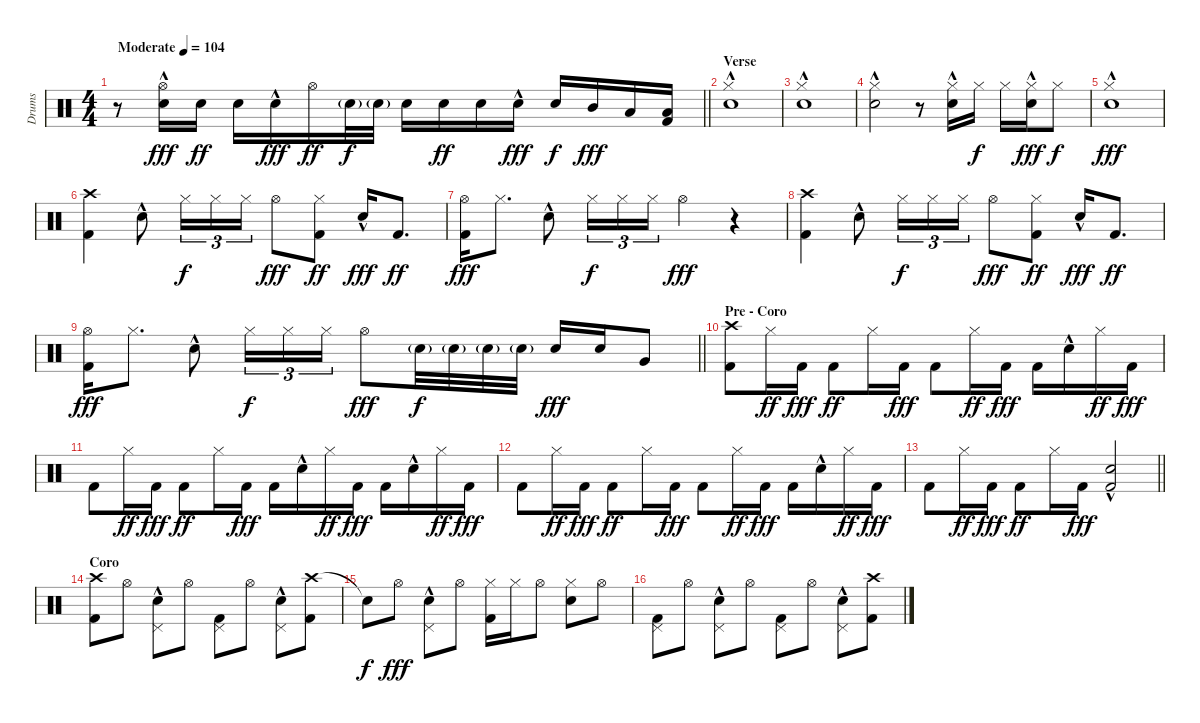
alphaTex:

\track ("Drums" "Drums") {instrument percussion}
\staff {score}
\articulation defaults
\ts (4 4)
\tempo (104 "Moderate")
\clef neutral
\barLineRight lightlight
\ks c
r.8{dy fff} ("Hi-Hat (open)" "Electric Snare (hit)"{hac}).16 "Electric Snare (hit)".16{dy ff} "Electric Snare (hit)".16 "Electric Snare (hit)"{hac}.16{dy fff} "Hi-Hat (open)".16{dy ff} "Electric Snare (hit)"{g}.32{dy f} "Electric Snare (hit)"{g}.32 "Electric Snare (hit)".16 "Electric Snare (hit)".16{dy ff} "Electric Snare (hit)".16 "Electric Snare (hit)"{hac}.16{dy fff} "Electric Snare (hit)".16{dy f} "Mid Tom (hit)".16{dy fff} "Low Tom (hit)".16 ("Low Tom (hit)" "Kick (hit) 2").16 |
\section ("" "Verse")
("Hi-Hat (closed)" "Electric Snare (hit)"{hac}).1 |
("Hi-Hat (closed)" "Electric Snare (hit)"{hac}).1 |
("Hi-Hat (closed)" "Electric Snare (hit)"{hac}).2 r.8 ("Hi-Hat (closed)" "Electric Snare (hit)"{hac}).16 "Hi-Hat (closed)".16{dy f} "Hi-Hat (closed)".16 ("Hi-Hat (closed)" "Electric Snare (hit)"{hac}).16{dy fff} "Hi-Hat (closed)".8{dy f} |
("Hi-Hat (closed)" "Electric Snare (hit)"{hac}).1{dy fff} |
("Crash high (hit)" "Kick (hit) 2").4 "Electric Snare (hit)"{hac}.8 "Hi-Hat (closed)".16{tu (3 2) dy f} "Hi-Hat (closed)".16{tu (3 2)} "Hi-Hat (closed)".16{tu (3 2)} "Hi-Hat (open)".8{dy fff} ("Hi-Hat (closed)" "Kick (hit) 2").8{dy ff} "Electric Snare (hit)"{hac}.16{dy fff} "Kick (hit) 2".8{d dy ff} |
("Hi-Hat (open)" "Kick (hit) 2").16{dy fff} "Hi-Hat (closed)".8{d} "Electric Snare (hit)"{hac}.8 "Hi-Hat (closed)".16{tu (3 2) dy f} "Hi-Hat (closed)".16{tu (3 2)} "Hi-Hat (closed)".16{tu (3 2)} "Hi-Hat (open)".4{dy fff} r.4 |
("Crash high (hit)" "Kick (hit) 2").4 "Electric Snare (hit)"{hac}.8 "Hi-Hat (closed)".16{tu (3 2) dy f} "Hi-Hat (closed)".16{tu (3 2)} "Hi-Hat (closed)".16{tu (3 2)} "Hi-Hat (open)".8{dy fff} ("Hi-Hat (closed)" "Kick (hit) 2").8{dy ff} "Electric Snare (hit)"{hac}.16{dy fff} "Kick (hit) 2".8{d dy ff} |
\barLineRight lightlight
("Hi-Hat (open)" "Kick (hit) 2").16{dy fff} "Hi-Hat (closed)".8{d} "Electric Snare (hit)"{hac}.8 "Hi-Hat (closed)".16{tu (3 2) dy f} "Hi-Hat (closed)".16{tu (3 2)} "Hi-Hat (closed)".16{tu (3 2)} "Hi-Hat (open)".8{dy fff} "Electric Snare (hit)"{g}.32{dy f} "Electric Snare (hit)"{g}.32 "Electric Snare (hit)"{g}.32 "Electric Snare (hit)"{g}.32 "Electric Snare (hit)".16{dy fff} "Electric Snare (hit)".16 "Very Low Tom (hit)".8 |
\section ("" "Pre - Coro")
("Crash high (hit)" "Kick (hit) 2").8 "Hi-Hat (closed)".16{dy ff} "Kick (hit) 2".16{dy fff} "Kick (hit) 2".8{dy ff} "Hi-Hat (closed)".16 "Kick (hit) 2".16{dy fff} "Kick (hit) 2".8 "Hi-Hat (closed)".16{dy ff} "Kick (hit) 2".16{dy fff} "Kick (hit) 2".16 "Electric Snare (hit)"{hac}.16 "Hi-Hat (closed)".16{dy ff} "Kick (hit) 2".16{dy fff} |
"Kick (hit) 2".8 "Hi-Hat (closed)".16{dy ff} "Kick (hit) 2".16{dy fff} "Kick (hit) 2".8{dy ff} "Hi-Hat (closed)".16 "Kick (hit) 2".16{dy fff} "Kick (hit) 2".16 "Electric Snare (hit)"{hac}.16 "Hi-Hat (closed)".16{dy ff} "Kick (hit) 2".16{dy fff} "Kick (hit) 2".16 "Electric Snare (hit)"{hac}.16 "Hi-Hat (closed)".16{dy ff} "Kick (hit) 2".16{dy fff} |
"Kick (hit) 2".8 "Hi-Hat (closed)".16{dy ff} "Kick (hit) 2".16{dy fff} "Kick (hit) 2".8{dy ff} "Hi-Hat (closed)".16 "Kick (hit) 2".16{dy fff} "Kick (hit) 2".8 "Hi-Hat (closed)".16{dy ff} "Kick (hit) 2".16{dy fff} "Kick (hit) 2".16 "Electric Snare (hit)"{hac}.16 "Hi-Hat (closed)".16{dy ff} "Kick (hit) 2".16{dy fff} |
\barLineRight lightlight "Kick (hit) 2".8 "Hi-Hat (closed)".16{dy ff} "Kick (hit) 2".16{dy fff} "Kick (hit) 2".8{dy ff} "Hi-Hat (closed)".16 "Kick (hit) 2".16{dy fff}
("Electric Snare (hit)"{hac} "Kick (hit) 2").2 |
\section ("" "Coro")
("Crash high (hit)" "Kick (hit) 2").8 "Hi-Hat (open)".8 ("Pedal Hi-Hat (hit)" "Electric Snare (hit)"{hac}).8 "Hi-Hat (open)".8 ("Pedal Hi-Hat (hit)" "Kick (hit) 2").8 "Hi-Hat (open)".8 ("Pedal Hi-Hat (hit)" "Electric Snare (hit)"{hac}).8 ("Crash high (hit)" "Kick (hit) 2").8 |
"Snare (hit)"{t}.8{dy f} "Hi-Hat (open)".8{dy fff} ("Pedal Hi-Hat (hit)" "Electric Snare (hit)"{hac}).8 "Hi-Hat (open)".8 ("Hi-Hat (closed)" "Kick (hit) 2").16 "Hi-Hat (closed)".16 "Hi-Hat (open)".8 ("Hi-Hat (closed)" "Electric Snare (hit)").8 "Hi-Hat (open)".8 |
("Pedal Hi-Hat (hit)" "Kick (hit) 2").8 "Hi-Hat (open)".8 ("Pedal Hi-Hat (hit)" "Electric Snare (hit)"{hac}).8 "Hi-Hat (open)".8 ("Pedal Hi-Hat (hit)" "Kick (hit) 2").8 "Hi-Hat (open)".8 ("Pedal Hi-Hat (hit)" "Electric Snare (hit)"{hac}).8 ("Crash high (hit)" "Kick (hit) 2").8
